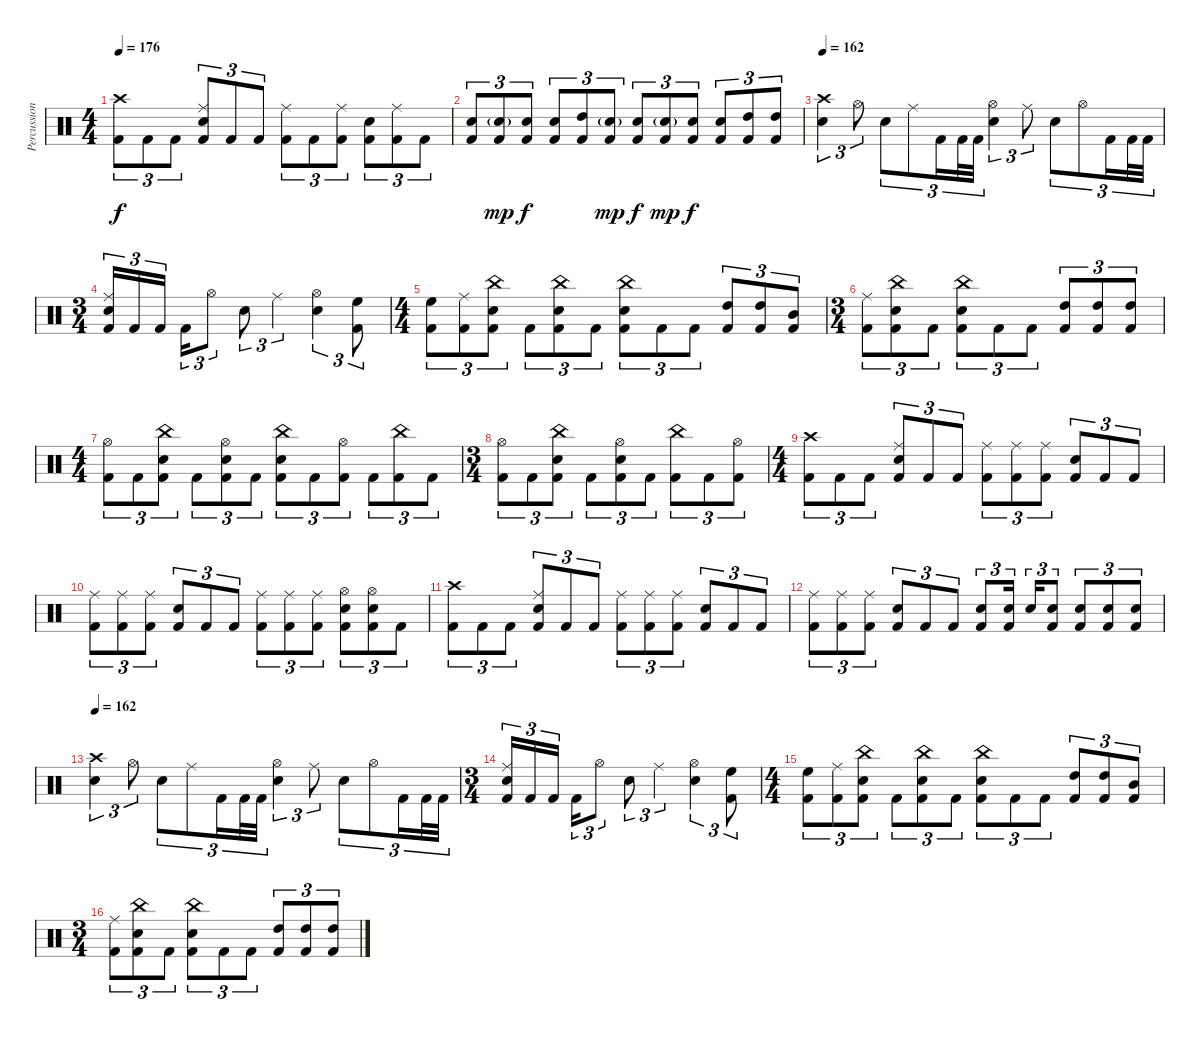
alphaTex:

\track ("Percussion" "Percussion") {instrument percussion}
\staff {score}
\articulation defaults
\ts (4 4)
\tempo 176
\clef neutral
\ks c
("Crash high (hit)" "Kick (hit) 2").8{tu (3 2) dy f} "Kick (hit) 2".8{tu (3 2)} "Kick (hit) 2".8{tu (3 2)} ("Ride (middle)" "Electric Snare (hit)" "Kick (hit) 2").8{tu (3 2)} "Kick (hit) 2".8{tu (3 2)} "Kick (hit) 2".8{tu (3 2)} ("Ride (middle)" "Kick (hit) 2").8{tu (3 2)} "Kick (hit) 2".8{tu (3 2)} ("Ride (middle)" "Kick (hit) 2").8{tu (3 2)} ("Electric Snare (hit)" "Kick (hit) 2").8{tu (3 2)} ("Ride (middle)" "Kick (hit) 2").8{tu (3 2)} "Kick (hit) 2".8{tu (3 2)} |
("Electric Snare (hit)" "Kick (hit) 2").8{tu (3 2)} ("Electric Snare (hit)"{g} "Kick (hit) 2").8{tu (3 2) dy mp} ("Electric Snare (hit)" "Kick (hit) 2").8{tu (3 2) dy f} ("Electric Snare (hit)" "Kick (hit) 2").8{tu (3 2)} ("High Tom (hit)" "Kick (hit) 2").8{tu (3 2)} ("Electric Snare (hit)"{g} "Kick (hit) 2").8{tu (3 2) dy mp} ("Electric Snare (hit)" "Kick (hit) 2").8{tu (3 2) dy f} ("Electric Snare (hit)"{g} "Kick (hit) 2").8{tu (3 2) dy mp} ("Electric Snare (hit)" "Kick (hit) 2").8{tu (3 2) dy f} ("Electric Snare (hit)" "Kick (hit) 2").8{tu (3 2)} ("High Tom (hit)" "Kick (hit) 2").8{tu (3 2)} ("High Tom (hit)" "Kick (hit) 2").8{tu (3 2)} |
\tempo 162
("Crash high (hit)" "Electric Snare (hit)").4{tu (3 2)} "Hi-Hat (open)".8{tu (3 2)} "Electric Snare (hit)".8{tu (3 2)} "Ride (middle)".8{tu (3 2)} "Kick (hit) 2".16{tu (3 2)} "Kick (hit) 2".32{tu (3 2)} "Kick (hit) 2".32{tu (3 2)} ("Hi-Hat (open)" "Electric Snare (hit)").4{tu (3 2)} "Ride (middle)".8{tu (3 2)} "Electric Snare (hit)".8{tu (3 2)} "Hi-Hat (open)".8{tu (3 2)} "Kick (hit) 2".16{tu (3 2)} "Kick (hit) 2".32{tu (3 2)} "Kick (hit) 2".32{tu (3 2)} |
\ts (3 4)
("Ride (middle)" "Electric Snare (hit)" "Kick (hit) 2").16{tu (3 2)} "Kick (hit) 2".16{tu (3 2)} "Kick (hit) 2".16{tu (3 2)} "Kick (hit) 2".16{tu (3 2)} "Hi-Hat (open)".8{tu (3 2)} "Electric Snare (hit)".8{tu (3 2)} "Ride (middle)".4{tu (3 2)} ("Hi-Hat (open)" "Electric Snare (hit)").4{tu (3 2)} ("High Floor Tom (hit)" "Kick (hit) 2").8{tu (3 2)} |
\ts (4 4)
("High Floor Tom (hit)" "Kick (hit) 2").8{tu (3 2)} ("Ride (middle)" "Kick (hit) 2").8{tu (3 2)} ("China (hit)" "Electric Snare (hit)" "Kick (hit) 2").8{tu (3 2)} "Kick (hit) 2".8{tu (3 2)} ("China (hit)" "Electric Snare (hit)" "Kick (hit) 2").8{tu (3 2)} "Kick (hit) 2".8{tu (3 2)} ("China (hit)" "Electric Snare (hit)" "Kick (hit) 2").8{tu (3 2)} "Kick (hit) 2".8{tu (3 2)} "Kick (hit) 2".8{tu (3 2)} ("High Tom (hit)" "Kick (hit) 2").8{tu (3 2)} ("High Tom (hit)" "Kick (hit) 2").8{tu (3 2)} ("Mid Tom (hit)" "Kick (hit) 2").8{tu (3 2)} |
\ts (3 4)
("Ride (middle)" "Kick (hit) 2").8{tu (3 2)} ("China (hit)" "Electric Snare (hit)" "Kick (hit) 2").8{tu (3 2)} "Kick (hit) 2".8{tu (3 2)} ("China (hit)" "Electric Snare (hit)" "Kick (hit) 2").8{tu (3 2)} "Kick (hit) 2".8{tu (3 2)} "Kick (hit) 2".8{tu (3 2)} ("High Tom (hit)" "Kick (hit) 2").8{tu (3 2)} ("High Tom (hit)" "Kick (hit) 2").8{tu (3 2)} ("High Tom (hit)" "Kick (hit) 2").8{tu (3 2)} |
\ts (4 4)
("Hi-Hat (open)" "Kick (hit) 2").8{tu (3 2)} "Kick (hit) 2".8{tu (3 2)} ("China (hit)" "Electric Snare (hit)" "Kick (hit) 2").8{tu (3 2)} "Kick (hit) 2".8{tu (3 2)} ("Hi-Hat (open)" "Electric Snare (hit)" "Kick (hit) 2").8{tu (3 2)} "Kick (hit) 2".8{tu (3 2)} ("China (hit)" "Electric Snare (hit)" "Kick (hit) 2").8{tu (3 2)} "Kick (hit) 2".8{tu (3 2)} ("Hi-Hat (open)" "Kick (hit) 2").8{tu (3 2)} "Kick (hit) 2".8{tu (3 2)} ("China (hit)" "Kick (hit) 2").8{tu (3 2)} "Kick (hit) 2".8{tu (3 2)} |
\ts (3 4)
("Hi-Hat (open)" "Kick (hit) 2").8{tu (3 2)} "Kick (hit) 2".8{tu (3 2)} ("China (hit)" "Electric Snare (hit)" "Kick (hit) 2").8{tu (3 2)} "Kick (hit) 2".8{tu (3 2)} ("Hi-Hat (open)" "Electric Snare (hit)" "Kick (hit) 2").8{tu (3 2)} "Kick (hit) 2".8{tu (3 2)} ("China (hit)" "Kick (hit) 2").8{tu (3 2)} "Kick (hit) 2".8{tu (3 2)} ("Hi-Hat (open)" "Kick (hit) 2").8{tu (3 2)} |
\ts (4 4)
("Crash high (hit)" "Kick (hit) 2").8{tu (3 2)} "Kick (hit) 2".8{tu (3 2)} "Kick (hit) 2".8{tu (3 2)} ("Ride (middle)" "Electric Snare (hit)" "Kick (hit) 2").8{tu (3 2)} "Kick (hit) 2".8{tu (3 2)} "Kick (hit) 2".8{tu (3 2)} ("Ride (middle)" "Kick (hit) 2").8{tu (3 2)} ("Ride (middle)" "Kick (hit) 2").8{tu (3 2)} ("Ride (middle)" "Kick (hit) 2").8{tu (3 2)} ("Electric Snare (hit)" "Kick (hit) 2").8{tu (3 2)} "Kick (hit) 2".8{tu (3 2)} "Kick (hit) 2".8{tu (3 2)} |
("Ride (middle)" "Kick (hit) 2").8{tu (3 2)} ("Ride (middle)" "Kick (hit) 2").8{tu (3 2)} ("Ride (middle)" "Kick (hit) 2").8{tu (3 2)} ("Electric Snare (hit)" "Kick (hit) 2").8{tu (3 2)} "Kick (hit) 2".8{tu (3 2)} "Kick (hit) 2".8{tu (3 2)} ("Ride (middle)" "Kick (hit) 2").8{tu (3 2)} ("Ride (middle)" "Kick (hit) 2").8{tu (3 2)} ("Ride (middle)" "Kick (hit) 2").8{tu (3 2)} ("Hi-Hat (open)" "Electric Snare (hit)" "Kick (hit) 2").8{tu (3 2)} ("Hi-Hat (open)" "Electric Snare (hit)" "Kick (hit) 2").8{tu (3 2)} "Kick (hit) 2".8{tu (3 2)} |
("Crash high (hit)" "Kick (hit) 2").8{tu (3 2)} "Kick (hit) 2".8{tu (3 2)} "Kick (hit) 2".8{tu (3 2)} ("Ride (middle)" "Electric Snare (hit)" "Kick (hit) 2").8{tu (3 2)} "Kick (hit) 2".8{tu (3 2)} "Kick (hit) 2".8{tu (3 2)} ("Ride (middle)" "Kick (hit) 2").8{tu (3 2)} ("Ride (middle)" "Kick (hit) 2").8{tu (3 2)} ("Ride (middle)" "Kick (hit) 2").8{tu (3 2)} ("Electric Snare (hit)" "Kick (hit) 2").8{tu (3 2)} "Kick (hit) 2".8{tu (3 2)} "Kick (hit) 2".8{tu (3 2)} |
("Ride (middle)" "Kick (hit) 2").8{tu (3 2)} ("Ride (middle)" "Kick (hit) 2").8{tu (3 2)} ("Ride (middle)" "Kick (hit) 2").8{tu (3 2)} ("Electric Snare (hit)" "Kick (hit) 2").8{tu (3 2)} "Kick (hit) 2".8{tu (3 2)} "Kick (hit) 2".8{tu (3 2)} ("Electric Snare (hit)" "Kick (hit) 2").8{tu (3 2)} ("Electric Snare (hit)" "Kick (hit) 2").16{tu (3 2)} "Electric Snare (hit)".16{tu (3 2)} ("Electric Snare (hit)" "Kick (hit) 2").8{tu (3 2)} ("Electric Snare (hit)" "Kick (hit) 2").8{tu (3 2)} ("Electric Snare (hit)" "Kick (hit) 2").8{tu (3 2)} ("Electric Snare (hit)" "Kick (hit) 2").8{tu (3 2)} |
\tempo 162
("Crash high (hit)" "Electric Snare (hit)").4{tu (3 2)} "Hi-Hat (open)".8{tu (3 2)} "Electric Snare (hit)".8{tu (3 2)} "Ride (middle)".8{tu (3 2)} "Kick (hit) 2".16{tu (3 2)} "Kick (hit) 2".32{tu (3 2)} "Kick (hit) 2".32{tu (3 2)} ("Hi-Hat (open)" "Electric Snare (hit)").4{tu (3 2)} "Ride (middle)".8{tu (3 2)} "Electric Snare (hit)".8{tu (3 2)} "Hi-Hat (open)".8{tu (3 2)} "Kick (hit) 2".16{tu (3 2)} "Kick (hit) 2".32{tu (3 2)} "Kick (hit) 2".32{tu (3 2)} |
\ts (3 4)
("Ride (middle)" "Electric Snare (hit)" "Kick (hit) 2").16{tu (3 2)} "Kick (hit) 2".16{tu (3 2)} "Kick (hit) 2".16{tu (3 2)} "Kick (hit) 2".16{tu (3 2)} "Hi-Hat (open)".8{tu (3 2)} "Electric Snare (hit)".8{tu (3 2)} "Ride (middle)".4{tu (3 2)} ("Hi-Hat (open)" "Electric Snare (hit)").4{tu (3 2)} ("High Floor Tom (hit)" "Kick (hit) 2").8{tu (3 2)} |
\ts (4 4)
("High Floor Tom (hit)" "Kick (hit) 2").8{tu (3 2)} ("Ride (middle)" "Kick (hit) 2").8{tu (3 2)} ("China (hit)" "Electric Snare (hit)" "Kick (hit) 2").8{tu (3 2)} "Kick (hit) 2".8{tu (3 2)} ("China (hit)" "Electric Snare (hit)" "Kick (hit) 2").8{tu (3 2)} "Kick (hit) 2".8{tu (3 2)} ("China (hit)" "Electric Snare (hit)" "Kick (hit) 2").8{tu (3 2)} "Kick (hit) 2".8{tu (3 2)} "Kick (hit) 2".8{tu (3 2)} ("High Tom (hit)" "Kick (hit) 2").8{tu (3 2)} ("High Tom (hit)" "Kick (hit) 2").8{tu (3 2)} ("Mid Tom (hit)" "Kick (hit) 2").8{tu (3 2)} |
\ts (3 4)
("Ride (middle)" "Kick (hit) 2").8{tu (3 2)} ("China (hit)" "Electric Snare (hit)" "Kick (hit) 2").8{tu (3 2)} "Kick (hit) 2".8{tu (3 2)} ("China (hit)" "Electric Snare (hit)" "Kick (hit) 2").8{tu (3 2)} "Kick (hit) 2".8{tu (3 2)} "Kick (hit) 2".8{tu (3 2)} ("High Tom (hit)" "Kick (hit) 2").8{tu (3 2)} ("High Tom (hit)" "Kick (hit) 2").8{tu (3 2)} ("High Tom (hit)" "Kick (hit) 2").8{tu (3 2)}
